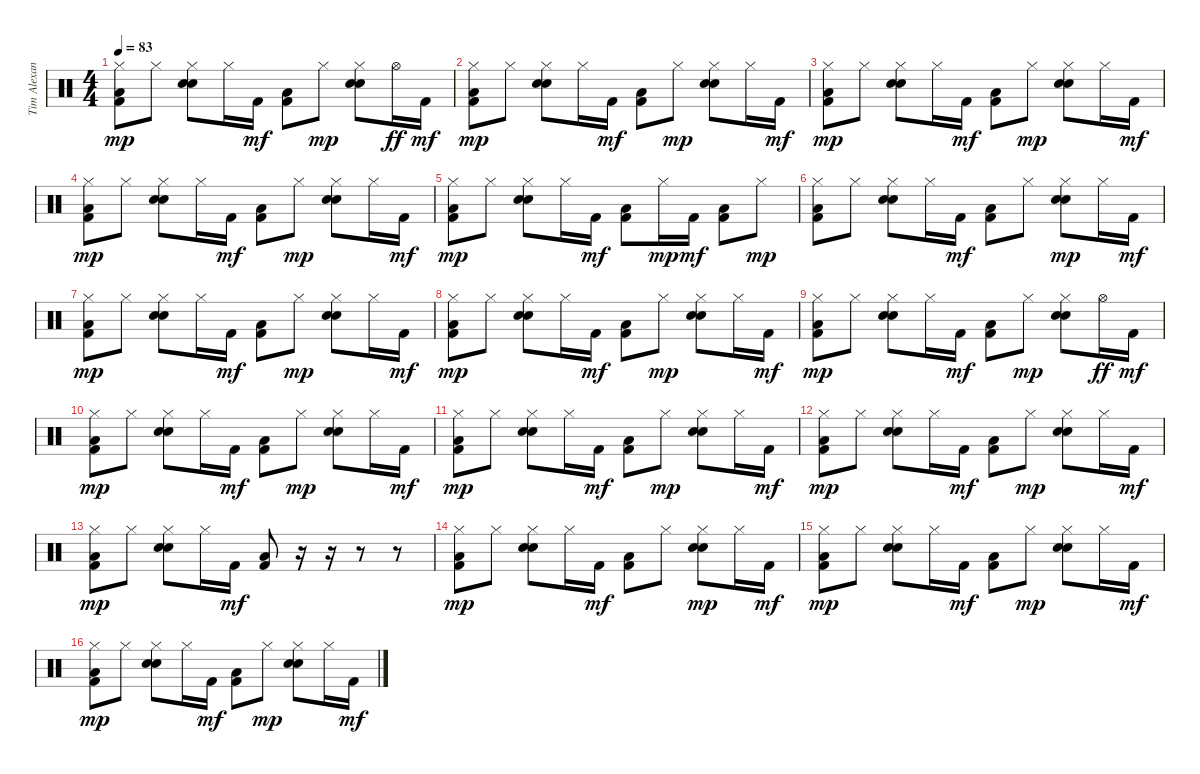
\track ("Tim Alexander" "Tim Alexan") {instrument percussion}
\staff {score}
\articulation defaults
\ts (4 4)
\tempo 83
\clef neutral
\ks c
("Kick (hit) 2" "Low Floor Tom (hit)" "Hi-Hat (closed)").8{dy mp} "Hi-Hat (closed)".8 ("Hand Clap (hit)" "Electric Snare (hit)" "Hi-Hat (closed)").8 "Hi-Hat (closed)".16 "Kick (hit) 2".16{dy mf} ("Kick (hit) 2" "Low Floor Tom (hit)").8 "Hi-Hat (closed)".8{dy mp} ("Hand Clap (hit)" "Electric Snare (hit)" "Hi-Hat (closed)").8 "Hi-Hat (open)".16{dy ff} "Kick (hit) 2".16{dy mf} |
("Kick (hit) 2" "Low Floor Tom (hit)" "Hi-Hat (closed)").8{dy mp} "Hi-Hat (closed)".8 ("Hand Clap (hit)" "Electric Snare (hit)" "Hi-Hat (closed)").8 "Hi-Hat (closed)".16 "Kick (hit) 2".16{dy mf} ("Kick (hit) 2" "Low Floor Tom (hit)").8 "Hi-Hat (closed)".8{dy mp} ("Hand Clap (hit)" "Electric Snare (hit)" "Hi-Hat (closed)").8 "Hi-Hat (closed)".16 "Kick (hit) 2".16{dy mf} |
("Kick (hit) 2" "Low Floor Tom (hit)" "Hi-Hat (closed)").8{dy mp} "Hi-Hat (closed)".8 ("Hand Clap (hit)" "Electric Snare (hit)" "Hi-Hat (closed)").8 "Hi-Hat (closed)".16 "Kick (hit) 2".16{dy mf} ("Kick (hit) 2" "Low Floor Tom (hit)").8 "Hi-Hat (closed)".8{dy mp} ("Hand Clap (hit)" "Electric Snare (hit)" "Hi-Hat (closed)").8 "Hi-Hat (closed)".16 "Kick (hit) 2".16{dy mf} |
("Kick (hit) 2" "Low Floor Tom (hit)" "Hi-Hat (closed)").8{dy mp} "Hi-Hat (closed)".8 ("Hand Clap (hit)" "Electric Snare (hit)" "Hi-Hat (closed)").8 "Hi-Hat (closed)".16 "Kick (hit) 2".16{dy mf} ("Kick (hit) 2" "Low Floor Tom (hit)").8 "Hi-Hat (closed)".8{dy mp} ("Hand Clap (hit)" "Electric Snare (hit)" "Hi-Hat (closed)").8 "Hi-Hat (closed)".16 "Kick (hit) 2".16{dy mf} |
("Kick (hit) 2" "Low Floor Tom (hit)" "Hi-Hat (closed)").8{dy mp} "Hi-Hat (closed)".8 ("Hand Clap (hit)" "Electric Snare (hit)" "Hi-Hat (closed)").8 "Hi-Hat (closed)".16 "Kick (hit) 2".16{dy mf} ("Kick (hit) 2" "Low Floor Tom (hit)").8 "Hi-Hat (closed)".16{dy mp} "Kick (hit) 2".16{dy mf} ("Kick (hit) 2" "Low Floor Tom (hit)").8 "Hi-Hat (closed)".8{dy mp} |
("Kick (hit) 2" "Low Floor Tom (hit)" "Hi-Hat (closed)").8 "Hi-Hat (closed)".8 ("Hand Clap (hit)" "Electric Snare (hit)" "Hi-Hat (closed)").8 "Hi-Hat (closed)".16 "Kick (hit) 2".16{dy mf} ("Kick (hit) 2" "Low Floor Tom (hit)").8 "Hi-Hat (closed)".8 ("Hand Clap (hit)" "Electric Snare (hit)" "Hi-Hat (closed)").8{dy mp} "Hi-Hat (closed)".16 "Kick (hit) 2".16{dy mf} |
("Kick (hit) 2" "Low Floor Tom (hit)" "Hi-Hat (closed)").8{dy mp} "Hi-Hat (closed)".8 ("Hand Clap (hit)" "Electric Snare (hit)" "Hi-Hat (closed)").8 "Hi-Hat (closed)".16 "Kick (hit) 2".16{dy mf} ("Kick (hit) 2" "Low Floor Tom (hit)").8 "Hi-Hat (closed)".8{dy mp} ("Hand Clap (hit)" "Electric Snare (hit)" "Hi-Hat (closed)").8 "Hi-Hat (closed)".16 "Kick (hit) 2".16{dy mf} |
("Kick (hit) 2" "Low Floor Tom (hit)" "Hi-Hat (closed)").8{dy mp} "Hi-Hat (closed)".8 ("Hand Clap (hit)" "Electric Snare (hit)" "Hi-Hat (closed)").8 "Hi-Hat (closed)".16 "Kick (hit) 2".16{dy mf} ("Kick (hit) 2" "Low Floor Tom (hit)").8 "Hi-Hat (closed)".8{dy mp} ("Hand Clap (hit)" "Electric Snare (hit)" "Hi-Hat (closed)").8 "Hi-Hat (closed)".16 "Kick (hit) 2".16{dy mf} |
("Kick (hit) 2" "Low Floor Tom (hit)" "Hi-Hat (closed)").8{dy mp} "Hi-Hat (closed)".8 ("Hand Clap (hit)" "Electric Snare (hit)" "Hi-Hat (closed)").8 "Hi-Hat (closed)".16 "Kick (hit) 2".16{dy mf} ("Kick (hit) 2" "Low Floor Tom (hit)").8 "Hi-Hat (closed)".8{dy mp} ("Hand Clap (hit)" "Electric Snare (hit)" "Hi-Hat (closed)").8 "Hi-Hat (open)".16{dy ff} "Kick (hit) 2".16{dy mf} |
("Kick (hit) 2" "Low Floor Tom (hit)" "Hi-Hat (closed)").8{dy mp} "Hi-Hat (closed)".8 ("Hand Clap (hit)" "Electric Snare (hit)" "Hi-Hat (closed)").8 "Hi-Hat (closed)".16 "Kick (hit) 2".16{dy mf} ("Kick (hit) 2" "Low Floor Tom (hit)").8 "Hi-Hat (closed)".8{dy mp} ("Hand Clap (hit)" "Electric Snare (hit)" "Hi-Hat (closed)").8 "Hi-Hat (closed)".16 "Kick (hit) 2".16{dy mf} |
("Kick (hit) 2" "Low Floor Tom (hit)" "Hi-Hat (closed)").8{dy mp} "Hi-Hat (closed)".8 ("Hand Clap (hit)" "Electric Snare (hit)" "Hi-Hat (closed)").8 "Hi-Hat (closed)".16 "Kick (hit) 2".16{dy mf} ("Kick (hit) 2" "Low Floor Tom (hit)").8 "Hi-Hat (closed)".8{dy mp} ("Hand Clap (hit)" "Electric Snare (hit)" "Hi-Hat (closed)").8 "Hi-Hat (closed)".16 "Kick (hit) 2".16{dy mf} |
("Kick (hit) 2" "Low Floor Tom (hit)" "Hi-Hat (closed)").8{dy mp} "Hi-Hat (closed)".8 ("Hand Clap (hit)" "Electric Snare (hit)" "Hi-Hat (closed)").8 "Hi-Hat (closed)".16 "Kick (hit) 2".16{dy mf} ("Kick (hit) 2" "Low Floor Tom (hit)").8 "Hi-Hat (closed)".8{dy mp} ("Hand Clap (hit)" "Electric Snare (hit)" "Hi-Hat (closed)").8 "Hi-Hat (closed)".16 "Kick (hit) 2".16{dy mf} |
("Kick (hit) 2" "Low Floor Tom (hit)" "Hi-Hat (closed)").8{dy mp} "Hi-Hat (closed)".8 ("Hand Clap (hit)" "Electric Snare (hit)" "Hi-Hat (closed)").8 "Hi-Hat (closed)".16 "Kick (hit) 2".16{dy mf} ("Kick (hit) 2" "Low Floor Tom (hit)").8 r.16 r.16 r.8 r.8 |
("Kick (hit) 2" "Low Floor Tom (hit)" "Hi-Hat (closed)").8{dy mp} "Hi-Hat (closed)".8 ("Hand Clap (hit)" "Electric Snare (hit)" "Hi-Hat (closed)").8 "Hi-Hat (closed)".16 "Kick (hit) 2".16{dy mf} ("Kick (hit) 2" "Low Floor Tom (hit)").8 "Hi-Hat (closed)".8 ("Hand Clap (hit)" "Electric Snare (hit)" "Hi-Hat (closed)").8{dy mp} "Hi-Hat (closed)".16 "Kick (hit) 2".16{dy mf} |
("Kick (hit) 2" "Low Floor Tom (hit)" "Hi-Hat (closed)").8{dy mp} "Hi-Hat (closed)".8 ("Hand Clap (hit)" "Electric Snare (hit)" "Hi-Hat (closed)").8 "Hi-Hat (closed)".16 "Kick (hit) 2".16{dy mf} ("Kick (hit) 2" "Low Floor Tom (hit)").8 "Hi-Hat (closed)".8{dy mp} ("Hand Clap (hit)" "Electric Snare (hit)" "Hi-Hat (closed)").8 "Hi-Hat (closed)".16 "Kick (hit) 2".16{dy mf} |
("Kick (hit) 2" "Low Floor Tom (hit)" "Hi-Hat (closed)").8{dy mp} "Hi-Hat (closed)".8 ("Hand Clap (hit)" "Electric Snare (hit)" "Hi-Hat (closed)").8 "Hi-Hat (closed)".16 "Kick (hit) 2".16{dy mf} ("Kick (hit) 2" "Low Floor Tom (hit)").8 "Hi-Hat (closed)".8{dy mp} ("Hand Clap (hit)" "Electric Snare (hit)" "Hi-Hat (closed)").8 "Hi-Hat (closed)".16 "Kick (hit) 2".16{dy mf}
